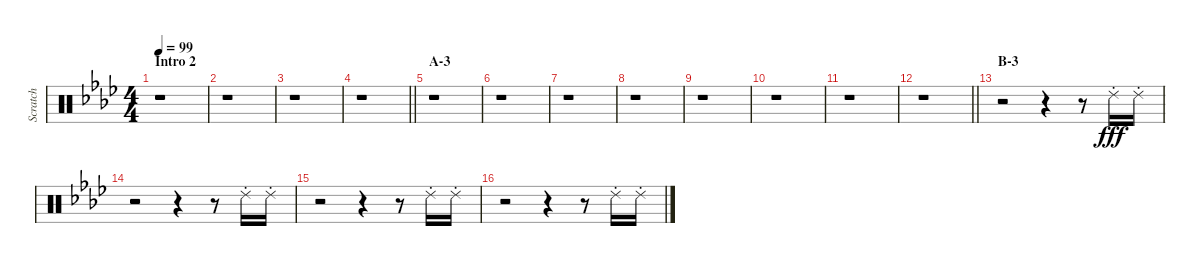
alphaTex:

\track ("Scratch" "Scratch") {instrument percussion}
\staff {score}
\articulation defaults
\ts (4 4)
\section ("" "Intro 2")
\tempo 99
\clef neutral
\ks ab
r.1{dy fff} |
r.1 |
r.1 |
\barLineRight lightlight
r.1 |
\section ("" "A-3")
r.1 |
r.1 |
r.1 |
r.1 |
r.1 |
r.1 |
r.1 |
\barLineRight lightlight
r.1 |
\section ("" "B-3")
r.2 r.4 r.8 "Ride (choke) 2".16 "Ride (choke) 2".16 |
r.2 r.4 r.8 "Ride (choke) 2".16 "Ride (choke) 2".16 |
r.2 r.4 r.8 "Ride (choke) 2".16 "Ride (choke) 2".16 |
r.2 r.4 r.8 "Ride (choke) 2".16 "Ride (choke) 2".16
